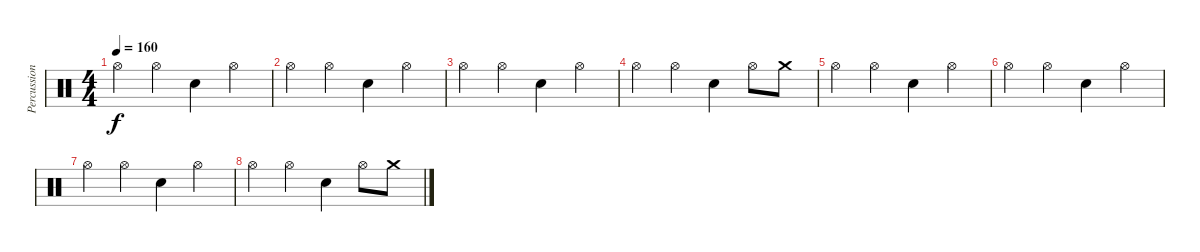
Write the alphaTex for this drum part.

\track ("Percussion" "Percussion") {instrument percussion}
\staff {score}
\articulation defaults
\ts (4 4)
\tempo 160
\clef neutral
\ks c "Hi-Hat (open)".4{dy f volume 9} "Hi-Hat (open)".4 "Electric Snare (hit)".4 "Hi-Hat (open)".4
|
"Hi-Hat (open)".4 "Hi-Hat (open)".4 "Electric Snare (hit)".4 "Hi-Hat (open)".4 |
"Hi-Hat (open)".4 "Hi-Hat (open)".4 "Electric Snare (hit)".4 "Hi-Hat (open)".4 |
"Hi-Hat (open)".4 "Hi-Hat (open)".4 "Electric Snare (hit)".4 "Hi-Hat (open)".8 "Crash medium (hit)".8 |
"Hi-Hat (open)".4{volume 7} "Hi-Hat (open)".4 "Electric Snare (hit)".4 "Hi-Hat (open)".4 |
"Hi-Hat (open)".4 "Hi-Hat (open)".4 "Electric Snare (hit)".4 "Hi-Hat (open)".4 |
"Hi-Hat (open)".4{volume 4} "Hi-Hat (open)".4 "Electric Snare (hit)".4 "Hi-Hat (open)".4 |
"Hi-Hat (open)".4 "Hi-Hat (open)".4 "Electric Snare (hit)".4 "Hi-Hat (open)".8 "Crash medium (hit)".8
